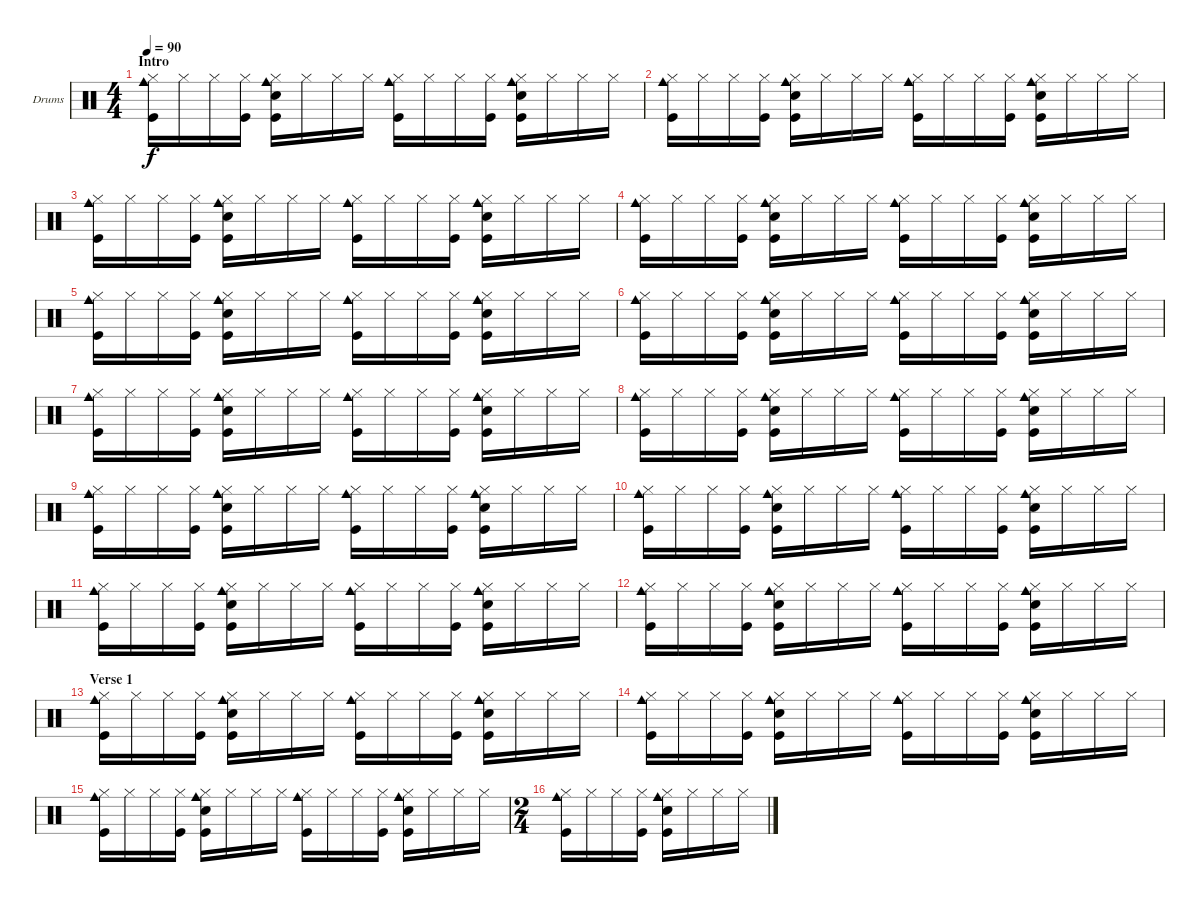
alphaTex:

\bracketExtendMode groupsimilarinstruments
\firstSystemTrackNameOrientation horizontal
\otherSystemsTrackNameOrientation horizontal
\track ("Drums" "Drums") {multiBarRest instrument percussion}
\staff {score}
\articulation defaults
\ts (4 4)
\beaming (8 2 2 2 2)
\section ("" "Intro")
\tempo 90
\clef neutral
\ks c
("Hi-Hat (closed)" "Kick (hit)" "Cowbell medium (hit)").16{dy f} "Hi-Hat (closed)".16 "Hi-Hat (closed)".16 ("Hi-Hat (closed)" "Kick (hit)").16 ("Hi-Hat (closed)" "Snare (hit) 2" "Kick (hit)" "Cowbell medium (hit)").16 "Hi-Hat (closed)".16 "Hi-Hat (closed)".16 "Hi-Hat (closed)".16 ("Hi-Hat (closed)" "Kick (hit)" "Cowbell medium (hit)").16 "Hi-Hat (closed)".16 "Hi-Hat (closed)".16 ("Hi-Hat (closed)" "Kick (hit)").16 ("Hi-Hat (closed)" "Snare (hit) 2" "Kick (hit)" "Cowbell medium (hit)").16 "Hi-Hat (closed)".16 "Hi-Hat (closed)".16 "Hi-Hat (closed)".16 |
("Hi-Hat (closed)" "Kick (hit)" "Cowbell medium (hit)").16 "Hi-Hat (closed)".16 "Hi-Hat (closed)".16 ("Hi-Hat (closed)" "Kick (hit)").16 ("Hi-Hat (closed)" "Snare (hit) 2" "Kick (hit)" "Cowbell medium (hit)").16 "Hi-Hat (closed)".16 "Hi-Hat (closed)".16 "Hi-Hat (closed)".16 ("Hi-Hat (closed)" "Kick (hit)" "Cowbell medium (hit)").16 "Hi-Hat (closed)".16 "Hi-Hat (closed)".16 ("Hi-Hat (closed)" "Kick (hit)").16 ("Hi-Hat (closed)" "Snare (hit) 2" "Kick (hit)" "Cowbell medium (hit)").16 "Hi-Hat (closed)".16 "Hi-Hat (closed)".16 "Hi-Hat (closed)".16 |
("Hi-Hat (closed)" "Kick (hit)" "Cowbell medium (hit)").16 "Hi-Hat (closed)".16 "Hi-Hat (closed)".16 ("Hi-Hat (closed)" "Kick (hit)").16 ("Hi-Hat (closed)" "Snare (hit) 2" "Kick (hit)" "Cowbell medium (hit)").16 "Hi-Hat (closed)".16 "Hi-Hat (closed)".16 "Hi-Hat (closed)".16 ("Hi-Hat (closed)" "Kick (hit)" "Cowbell medium (hit)").16 "Hi-Hat (closed)".16 "Hi-Hat (closed)".16 ("Hi-Hat (closed)" "Kick (hit)").16 ("Hi-Hat (closed)" "Snare (hit) 2" "Kick (hit)" "Cowbell medium (hit)").16 "Hi-Hat (closed)".16 "Hi-Hat (closed)".16 "Hi-Hat (closed)".16 |
("Hi-Hat (closed)" "Kick (hit)" "Cowbell medium (hit)").16 "Hi-Hat (closed)".16 "Hi-Hat (closed)".16 ("Hi-Hat (closed)" "Kick (hit)").16 ("Hi-Hat (closed)" "Snare (hit) 2" "Kick (hit)" "Cowbell medium (hit)").16 "Hi-Hat (closed)".16 "Hi-Hat (closed)".16 "Hi-Hat (closed)".16 ("Hi-Hat (closed)" "Kick (hit)" "Cowbell medium (hit)").16 "Hi-Hat (closed)".16 "Hi-Hat (closed)".16 ("Hi-Hat (closed)" "Kick (hit)").16 ("Hi-Hat (closed)" "Snare (hit) 2" "Kick (hit)" "Cowbell medium (hit)").16 "Hi-Hat (closed)".16 "Hi-Hat (closed)".16 "Hi-Hat (closed)".16 |
("Hi-Hat (closed)" "Kick (hit)" "Cowbell medium (hit)").16 "Hi-Hat (closed)".16 "Hi-Hat (closed)".16 ("Hi-Hat (closed)" "Kick (hit)").16 ("Hi-Hat (closed)" "Snare (hit) 2" "Kick (hit)" "Cowbell medium (hit)").16 "Hi-Hat (closed)".16 "Hi-Hat (closed)".16 "Hi-Hat (closed)".16 ("Hi-Hat (closed)" "Kick (hit)" "Cowbell medium (hit)").16 "Hi-Hat (closed)".16 "Hi-Hat (closed)".16 ("Hi-Hat (closed)" "Kick (hit)").16 ("Hi-Hat (closed)" "Snare (hit) 2" "Kick (hit)" "Cowbell medium (hit)").16 "Hi-Hat (closed)".16 "Hi-Hat (closed)".16 "Hi-Hat (closed)".16 |
("Hi-Hat (closed)" "Kick (hit)" "Cowbell medium (hit)").16 "Hi-Hat (closed)".16 "Hi-Hat (closed)".16 ("Hi-Hat (closed)" "Kick (hit)").16 ("Hi-Hat (closed)" "Snare (hit) 2" "Kick (hit)" "Cowbell medium (hit)").16 "Hi-Hat (closed)".16 "Hi-Hat (closed)".16 "Hi-Hat (closed)".16 ("Hi-Hat (closed)" "Kick (hit)" "Cowbell medium (hit)").16 "Hi-Hat (closed)".16 "Hi-Hat (closed)".16 ("Hi-Hat (closed)" "Kick (hit)").16 ("Hi-Hat (closed)" "Snare (hit) 2" "Kick (hit)" "Cowbell medium (hit)").16 "Hi-Hat (closed)".16 "Hi-Hat (closed)".16 "Hi-Hat (closed)".16 |
("Hi-Hat (closed)" "Kick (hit)" "Cowbell medium (hit)").16 "Hi-Hat (closed)".16 "Hi-Hat (closed)".16 ("Hi-Hat (closed)" "Kick (hit)").16 ("Hi-Hat (closed)" "Snare (hit) 2" "Kick (hit)" "Cowbell medium (hit)").16 "Hi-Hat (closed)".16 "Hi-Hat (closed)".16 "Hi-Hat (closed)".16 ("Hi-Hat (closed)" "Kick (hit)" "Cowbell medium (hit)").16 "Hi-Hat (closed)".16 "Hi-Hat (closed)".16 ("Hi-Hat (closed)" "Kick (hit)").16 ("Hi-Hat (closed)" "Snare (hit) 2" "Kick (hit)" "Cowbell medium (hit)").16 "Hi-Hat (closed)".16 "Hi-Hat (closed)".16 "Hi-Hat (closed)".16 |
("Hi-Hat (closed)" "Kick (hit)" "Cowbell medium (hit)").16 "Hi-Hat (closed)".16 "Hi-Hat (closed)".16 ("Hi-Hat (closed)" "Kick (hit)").16 ("Hi-Hat (closed)" "Snare (hit) 2" "Kick (hit)" "Cowbell medium (hit)").16 "Hi-Hat (closed)".16 "Hi-Hat (closed)".16 "Hi-Hat (closed)".16 ("Hi-Hat (closed)" "Kick (hit)" "Cowbell medium (hit)").16 "Hi-Hat (closed)".16 "Hi-Hat (closed)".16 ("Hi-Hat (closed)" "Kick (hit)").16 ("Hi-Hat (closed)" "Snare (hit) 2" "Kick (hit)" "Cowbell medium (hit)").16 "Hi-Hat (closed)".16 "Hi-Hat (closed)".16 "Hi-Hat (closed)".16 |
("Hi-Hat (closed)" "Kick (hit)" "Cowbell medium (hit)").16 "Hi-Hat (closed)".16 "Hi-Hat (closed)".16 ("Hi-Hat (closed)" "Kick (hit)").16 ("Hi-Hat (closed)" "Snare (hit) 2" "Kick (hit)" "Cowbell medium (hit)").16 "Hi-Hat (closed)".16 "Hi-Hat (closed)".16 "Hi-Hat (closed)".16 ("Hi-Hat (closed)" "Kick (hit)" "Cowbell medium (hit)").16 "Hi-Hat (closed)".16 "Hi-Hat (closed)".16 ("Hi-Hat (closed)" "Kick (hit)").16 ("Hi-Hat (closed)" "Snare (hit) 2" "Kick (hit)" "Cowbell medium (hit)").16 "Hi-Hat (closed)".16 "Hi-Hat (closed)".16 "Hi-Hat (closed)".16 |
("Hi-Hat (closed)" "Kick (hit)" "Cowbell medium (hit)").16 "Hi-Hat (closed)".16 "Hi-Hat (closed)".16 ("Hi-Hat (closed)" "Kick (hit)").16 ("Hi-Hat (closed)" "Snare (hit) 2" "Kick (hit)" "Cowbell medium (hit)").16 "Hi-Hat (closed)".16 "Hi-Hat (closed)".16 "Hi-Hat (closed)".16 ("Hi-Hat (closed)" "Kick (hit)" "Cowbell medium (hit)").16 "Hi-Hat (closed)".16 "Hi-Hat (closed)".16 ("Hi-Hat (closed)" "Kick (hit)").16 ("Hi-Hat (closed)" "Snare (hit) 2" "Kick (hit)" "Cowbell medium (hit)").16 "Hi-Hat (closed)".16 "Hi-Hat (closed)".16 "Hi-Hat (closed)".16 |
("Hi-Hat (closed)" "Kick (hit)" "Cowbell medium (hit)").16 "Hi-Hat (closed)".16 "Hi-Hat (closed)".16 ("Hi-Hat (closed)" "Kick (hit)").16 ("Hi-Hat (closed)" "Snare (hit) 2" "Kick (hit)" "Cowbell medium (hit)").16 "Hi-Hat (closed)".16 "Hi-Hat (closed)".16 "Hi-Hat (closed)".16 ("Hi-Hat (closed)" "Kick (hit)" "Cowbell medium (hit)").16 "Hi-Hat (closed)".16 "Hi-Hat (closed)".16 ("Hi-Hat (closed)" "Kick (hit)").16 ("Hi-Hat (closed)" "Snare (hit) 2" "Kick (hit)" "Cowbell medium (hit)").16 "Hi-Hat (closed)".16 "Hi-Hat (closed)".16 "Hi-Hat (closed)".16 |
("Hi-Hat (closed)" "Kick (hit)" "Cowbell medium (hit)").16 "Hi-Hat (closed)".16 "Hi-Hat (closed)".16 ("Hi-Hat (closed)" "Kick (hit)").16 ("Hi-Hat (closed)" "Snare (hit) 2" "Kick (hit)" "Cowbell medium (hit)").16 "Hi-Hat (closed)".16 "Hi-Hat (closed)".16 "Hi-Hat (closed)".16 ("Hi-Hat (closed)" "Kick (hit)" "Cowbell medium (hit)").16 "Hi-Hat (closed)".16 "Hi-Hat (closed)".16 ("Hi-Hat (closed)" "Kick (hit)").16 ("Hi-Hat (closed)" "Snare (hit) 2" "Kick (hit)" "Cowbell medium (hit)").16 "Hi-Hat (closed)".16 "Hi-Hat (closed)".16 "Hi-Hat (closed)".16 |
\section ("" "Verse 1")
("Hi-Hat (closed)" "Kick (hit)" "Cowbell medium (hit)").16 "Hi-Hat (closed)".16 "Hi-Hat (closed)".16 ("Hi-Hat (closed)" "Kick (hit)").16 ("Hi-Hat (closed)" "Snare (hit) 2" "Kick (hit)" "Cowbell medium (hit)").16 "Hi-Hat (closed)".16 "Hi-Hat (closed)".16 "Hi-Hat (closed)".16 ("Hi-Hat (closed)" "Kick (hit)" "Cowbell medium (hit)").16 "Hi-Hat (closed)".16 "Hi-Hat (closed)".16 ("Hi-Hat (closed)" "Kick (hit)").16 ("Hi-Hat (closed)" "Snare (hit) 2" "Kick (hit)" "Cowbell medium (hit)").16 "Hi-Hat (closed)".16 "Hi-Hat (closed)".16 "Hi-Hat (closed)".16 |
("Hi-Hat (closed)" "Kick (hit)" "Cowbell medium (hit)").16 "Hi-Hat (closed)".16 "Hi-Hat (closed)".16 ("Hi-Hat (closed)" "Kick (hit)").16 ("Hi-Hat (closed)" "Snare (hit) 2" "Kick (hit)" "Cowbell medium (hit)").16 "Hi-Hat (closed)".16 "Hi-Hat (closed)".16 "Hi-Hat (closed)".16 ("Hi-Hat (closed)" "Kick (hit)" "Cowbell medium (hit)").16 "Hi-Hat (closed)".16 "Hi-Hat (closed)".16 ("Hi-Hat (closed)" "Kick (hit)").16 ("Hi-Hat (closed)" "Snare (hit) 2" "Kick (hit)" "Cowbell medium (hit)").16 "Hi-Hat (closed)".16 "Hi-Hat (closed)".16 "Hi-Hat (closed)".16 |
("Hi-Hat (closed)" "Kick (hit)" "Cowbell medium (hit)").16 "Hi-Hat (closed)".16 "Hi-Hat (closed)".16 ("Hi-Hat (closed)" "Kick (hit)").16 ("Hi-Hat (closed)" "Snare (hit) 2" "Kick (hit)" "Cowbell medium (hit)").16 "Hi-Hat (closed)".16 "Hi-Hat (closed)".16 "Hi-Hat (closed)".16 ("Hi-Hat (closed)" "Kick (hit)" "Cowbell medium (hit)").16 "Hi-Hat (closed)".16 "Hi-Hat (closed)".16 ("Hi-Hat (closed)" "Kick (hit)").16 ("Hi-Hat (closed)" "Snare (hit) 2" "Kick (hit)" "Cowbell medium (hit)").16 "Hi-Hat (closed)".16 "Hi-Hat (closed)".16 "Hi-Hat (closed)".16 |
\ts (2 4)
\beaming (8 2 2)
("Hi-Hat (closed)" "Kick (hit)" "Cowbell medium (hit)").16 "Hi-Hat (closed)".16 "Hi-Hat (closed)".16 ("Hi-Hat (closed)" "Kick (hit)").16 ("Hi-Hat (closed)" "Snare (hit) 2" "Kick (hit)" "Cowbell medium (hit)").16 "Hi-Hat (closed)".16 "Hi-Hat (closed)".16 "Hi-Hat (closed)".16
